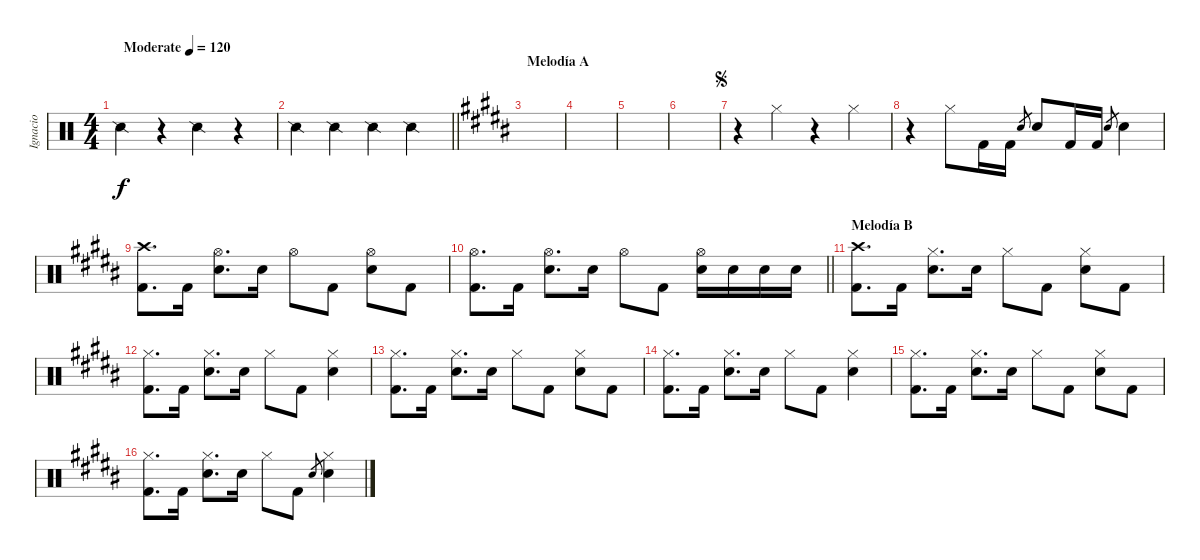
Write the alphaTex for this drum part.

\track ("Ignacio" "Ignacio") {instrument percussion}
\staff {score}
\articulation defaults
\ts (4 4)
\tempo (120 "Moderate")
\clef neutral
\ks c "Snare (side stick) 2".4{dy f volume 12}
r.4 "Snare (side stick) 2".4 r.4 |
\barLineRight lightlight "Snare (side stick) 2".4 "Snare (side stick) 2".4 "Snare (side stick) 2".4 "Snare (side stick) 2".4
|
\section ("" "Melodía A")
\ks b
|
|
|
|
\jump segno
r.4 "Hi-Hat (closed)".4 r.4 "Hi-Hat (closed)".4 |
r.4 "Hi-Hat (closed)".8 "Kick (hit) 2".16 "Kick (hit) 2".16 "Snare (hit) 2".8{gr} "Snare (hit) 2".8 "Kick (hit) 2".16 "Kick (hit) 2".16 "Snare (hit) 2".8{gr} "Snare (hit) 2".4 |
("Crash high (hit)" "Kick (hit) 2").8{d} "Kick (hit) 2".16 ("Hi-Hat (open)" "Snare (hit) 2").8{d} "Snare (hit) 2".16 "Hi-Hat (open)".8 "Kick (hit) 2".8 ("Hi-Hat (open)" "Snare (hit) 2").8 "Kick (hit) 2".8 |
\barLineRight lightlight
("Hi-Hat (open)" "Kick (hit) 2").8{d} "Kick (hit) 2".16 ("Hi-Hat (open)" "Snare (hit) 2").8{d} "Snare (hit) 2".16 "Hi-Hat (open)".8 "Kick (hit) 2".8 ("Hi-Hat (open)" "Snare (hit) 2").16 "Snare (hit) 2".16 "Snare (hit) 2".16 "Snare (hit) 2".16 |
\section ("" "Melodía B ")
("Crash high (hit)" "Kick (hit) 2").8{d} "Kick (hit) 2".16 ("Hi-Hat (closed)" "Snare (hit) 2").8{d} "Snare (hit) 2".16 "Hi-Hat (closed)".8 "Kick (hit) 2".8 ("Hi-Hat (closed)" "Snare (hit) 2").8 "Kick (hit) 2".8 |
("Hi-Hat (closed)" "Kick (hit) 2").8{d} "Kick (hit) 2".16 ("Hi-Hat (closed)" "Snare (hit) 2").8{d} "Snare (hit) 2".16 "Hi-Hat (closed)".8 "Kick (hit) 2".8 ("Hi-Hat (closed)" "Snare (hit) 2").4 |
("Hi-Hat (closed)" "Kick (hit) 2").8{d} "Kick (hit) 2".16 ("Hi-Hat (closed)" "Snare (hit) 2").8{d} "Snare (hit) 2".16 "Hi-Hat (closed)".8 "Kick (hit) 2".8 ("Hi-Hat (closed)" "Snare (hit) 2").8 "Kick (hit) 2".8 |
("Hi-Hat (closed)" "Kick (hit) 2").8{d} "Kick (hit) 2".16 ("Hi-Hat (closed)" "Snare (hit) 2").8{d} "Snare (hit) 2".16 "Hi-Hat (closed)".8 "Kick (hit) 2".8 ("Hi-Hat (closed)" "Snare (hit) 2").4 |
("Hi-Hat (closed)" "Kick (hit) 2").8{d} "Kick (hit) 2".16 ("Hi-Hat (closed)" "Snare (hit) 2").8{d} "Snare (hit) 2".16 "Hi-Hat (closed)".8 "Kick (hit) 2".8 ("Hi-Hat (closed)" "Snare (hit) 2").8 "Kick (hit) 2".8 |
("Hi-Hat (closed)" "Kick (hit) 2").8{d} "Kick (hit) 2".16 ("Hi-Hat (closed)" "Snare (hit) 2").8{d} "Snare (hit) 2".16 "Hi-Hat (closed)".8 "Kick (hit) 2".8 "Snare (hit) 2".8{gr} ("Hi-Hat (closed)" "Snare (hit) 2").4
